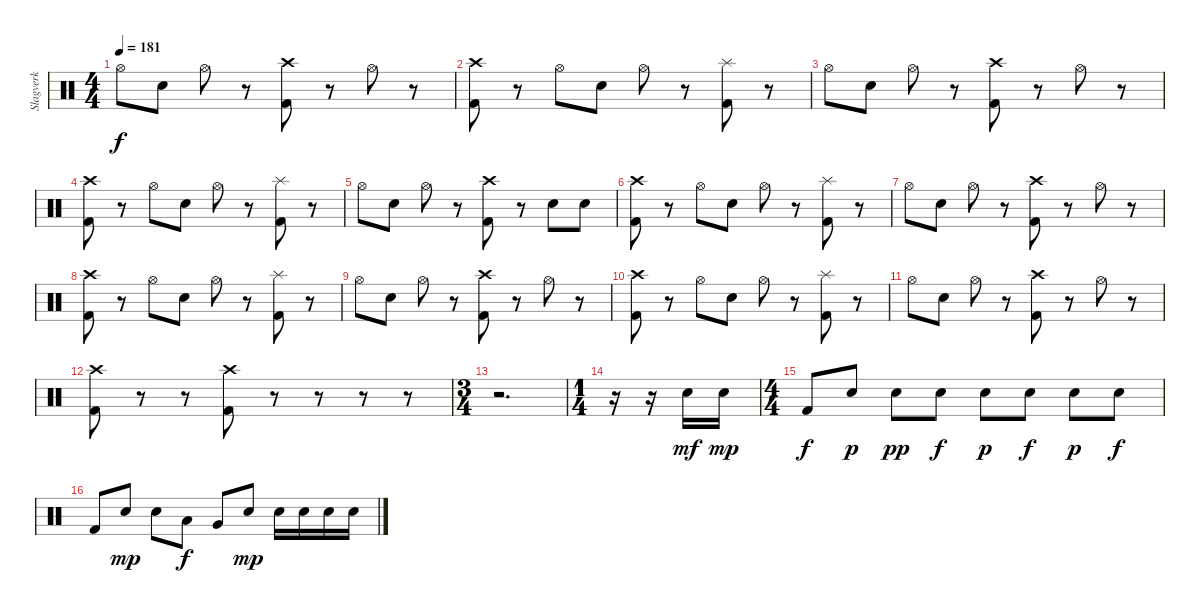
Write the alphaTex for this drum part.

\track ("Slagverk" "Slagverk") {instrument percussion}
\staff {score}
\articulation defaults
\ts (4 4)
\tempo 181
\clef neutral
\ks c "Hi-Hat (open)".8{dy f} "Electric Snare (hit)".8 "Hi-Hat (open)".8
r.8 ("Crash high (hit)" "Kick (hit) 2").8 r.8 "Hi-Hat (open)".8 r.8 |
("Crash high (hit)" "Kick (hit) 2").8 r.8 "Hi-Hat (open)".8 "Electric Snare (hit)".8 "Hi-Hat (open)".8 r.8 ("Splash (hit)" "Kick (hit) 2").8 r.8 |
"Hi-Hat (open)".8 "Electric Snare (hit)".8 "Hi-Hat (open)".8 r.8 ("Crash high (hit)" "Kick (hit) 2").8 r.8 "Hi-Hat (open)".8 r.8 |
("Crash high (hit)" "Kick (hit) 2").8 r.8 "Hi-Hat (open)".8 "Electric Snare (hit)".8 "Hi-Hat (open)".8 r.8 ("Splash (hit)" "Kick (hit) 2").8 r.8 |
"Hi-Hat (open)".8 "Electric Snare (hit)".8 "Hi-Hat (open)".8 r.8 ("Crash high (hit)" "Kick (hit) 2").8 r.8 "Electric Snare (hit)".8 "Electric Snare (hit)".8 |
("Crash high (hit)" "Kick (hit) 2").8 r.8 "Hi-Hat (open)".8 "Electric Snare (hit)".8 "Hi-Hat (open)".8 r.8 ("Splash (hit)" "Kick (hit) 2").8 r.8 |
"Hi-Hat (open)".8 "Electric Snare (hit)".8 "Hi-Hat (open)".8 r.8 ("Crash high (hit)" "Kick (hit) 2").8 r.8 "Hi-Hat (open)".8 r.8 |
("Crash high (hit)" "Kick (hit) 2").8 r.8 "Hi-Hat (open)".8 "Electric Snare (hit)".8 "Hi-Hat (open)".8 r.8 ("Splash (hit)" "Kick (hit) 2").8 r.8 |
"Hi-Hat (open)".8 "Electric Snare (hit)".8 "Hi-Hat (open)".8 r.8 ("Crash high (hit)" "Kick (hit) 2").8 r.8 "Hi-Hat (open)".8 r.8 |
("Crash high (hit)" "Kick (hit) 2").8 r.8 "Hi-Hat (open)".8 "Electric Snare (hit)".8 "Hi-Hat (open)".8 r.8 ("Splash (hit)" "Kick (hit) 2").8 r.8 |
"Hi-Hat (open)".8 "Electric Snare (hit)".8 "Hi-Hat (open)".8 r.8 ("Crash high (hit)" "Kick (hit) 2").8 r.8 "Hi-Hat (open)".8 r.8 |
("Crash high (hit)" "Kick (hit) 2").8 r.8 r.8 ("Crash high (hit)" "Kick (hit) 2").8 r.8 r.8 r.8 r.8 |
\ts (3 4)
r.2{d} |
\ts (1 4)
r.16{volume 10} r.16 "Electric Snare (hit)".16{dy mf} "Electric Snare (hit)".16{dy mp} |
\ts (4 4)
"Kick (hit) 2".8{dy f} "Electric Snare (hit)".8{dy p} "Electric Snare (hit)".8{dy pp} "Electric Snare (hit)".8{dy f} "Electric Snare (hit)".8{dy p} "Electric Snare (hit)".8{dy f} "Electric Snare (hit)".8{dy p} "Electric Snare (hit)".8{dy f} |
"Kick (hit) 2".8 "Electric Snare (hit)".8{dy mp} "Electric Snare (hit)".8 "Low Tom (hit)".8{dy f} "Very Low Tom (hit)".8 "Electric Snare (hit)".8{dy mp} "Electric Snare (hit)".16 "Electric Snare (hit)".16 "Electric Snare (hit)".16 "Electric Snare (hit)".16
